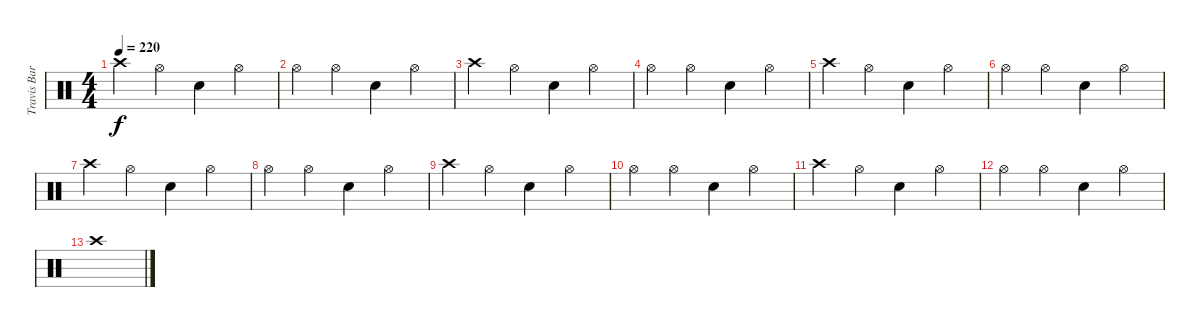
\track ("Travis Barker" "Travis Bar") {instrument percussion}
\staff {score}
\articulation defaults
\ts (4 4)
\tempo 220
\clef neutral
\ks c "Crash high (hit)".4{dy f} "Hi-Hat (open)".4 "Snare (hit) 2".4 "Hi-Hat (open)".4
|
"Hi-Hat (open)".4 "Hi-Hat (open)".4 "Snare (hit) 2".4 "Hi-Hat (open)".4 |
"Crash high (hit)".4 "Hi-Hat (open)".4 "Snare (hit) 2".4 "Hi-Hat (open)".4 |
"Hi-Hat (open)".4 "Hi-Hat (open)".4 "Snare (hit) 2".4 "Hi-Hat (open)".4 |
"Crash high (hit)".4 "Hi-Hat (open)".4 "Snare (hit) 2".4 "Hi-Hat (open)".4 |
"Hi-Hat (open)".4 "Hi-Hat (open)".4 "Snare (hit) 2".4 "Hi-Hat (open)".4 |
"Crash high (hit)".4 "Hi-Hat (open)".4 "Snare (hit) 2".4 "Hi-Hat (open)".4 |
"Hi-Hat (open)".4 "Hi-Hat (open)".4 "Snare (hit) 2".4 "Hi-Hat (open)".4 |
"Crash high (hit)".4 "Hi-Hat (open)".4 "Snare (hit) 2".4 "Hi-Hat (open)".4 |
"Hi-Hat (open)".4 "Hi-Hat (open)".4 "Snare (hit) 2".4 "Hi-Hat (open)".4 |
"Crash high (hit)".4 "Hi-Hat (open)".4 "Snare (hit) 2".4 "Hi-Hat (open)".4 |
"Hi-Hat (open)".4 "Hi-Hat (open)".4 "Snare (hit) 2".4 "Hi-Hat (open)".4 |
"Crash high (hit)".1
